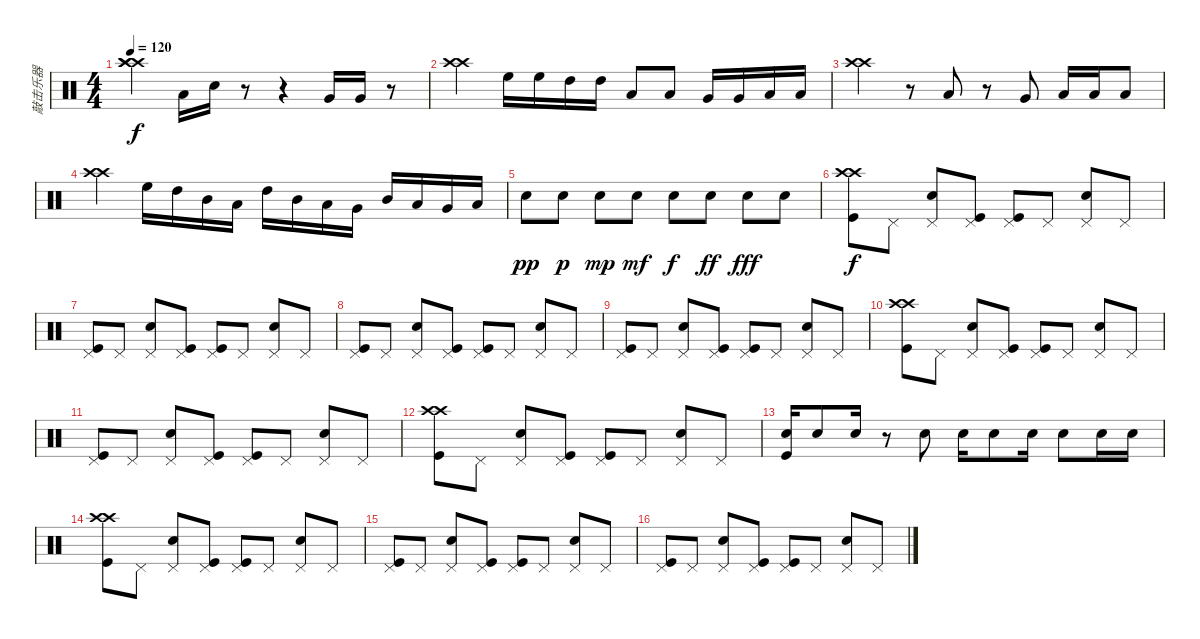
\track ("敲击乐器" "敲击乐器") {instrument percussion}
\staff {score}
\articulation defaults
\ts (4 4)
\tempo 120
\clef neutral
\ks c
("Crash high (hit)" "Crash high (hit)" "Crash high (hit)").4{dy f} "Low Tom (hit)".16 "Snare (hit)".16 r.8 r.4 "Very Low Tom (hit)".16 "Very Low Tom (hit)".16 r.8 |
("Crash high (hit)" "Crash high (hit)").4 "High Floor Tom (hit)".16 "High Floor Tom (hit)".16 "High Tom (hit)".16 "High Tom (hit)".16 "Low Tom (hit)".8 "Low Tom (hit)".8 "Very Low Tom (hit)".16 "Very Low Tom (hit)".16 "Low Floor Tom (hit)".16 "Low Floor Tom (hit)".16 |
("Crash high (hit)" "Crash high (hit)").4 r.8 "Low Tom (hit)".8 r.8 "Very Low Tom (hit)".8 "Low Floor Tom (hit)".16 "Low Floor Tom (hit)".16 "Low Floor Tom (hit)".8 |
("Crash high (hit)" "Crash high (hit)").4 "High Floor Tom (hit)".16 "High Tom (hit)".16 "Mid Tom (hit)".16 "Low Tom (hit)".16 "High Tom (hit)".16 "Mid Tom (hit)".16 "Low Tom (hit)".16 "Very Low Tom (hit)".16 "Mid Tom (hit)".16 "Low Tom (hit)".16 "Very Low Tom (hit)".16 "Low Floor Tom (hit)".16 |
"Metronome (bell)".8{dy pp} "Metronome (bell)".8{dy p} "Metronome (bell)".8{dy mp} "Metronome (bell)".8{dy mf} "Metronome (bell)".8{dy f} "Metronome (bell)".8{dy ff} "Metronome (bell)".8{dy fff} "Metronome (bell)".8 |
("Crash high (hit)" "Crash high (hit)" "Kick (hit)").8{dy f} "Pedal Hi-Hat (hit)".8 ("Pedal Hi-Hat (hit)" "Metronome (bell)").8 ("Pedal Hi-Hat (hit)" "Kick (hit)").8 ("Pedal Hi-Hat (hit)" "Kick (hit)").8 "Pedal Hi-Hat (hit)".8 ("Pedal Hi-Hat (hit)" "Metronome (bell)").8 "Pedal Hi-Hat (hit)".8 |
("Pedal Hi-Hat (hit)" "Kick (hit)").8 "Pedal Hi-Hat (hit)".8 ("Pedal Hi-Hat (hit)" "Metronome (bell)").8 ("Pedal Hi-Hat (hit)" "Kick (hit)").8 ("Pedal Hi-Hat (hit)" "Kick (hit)").8 "Pedal Hi-Hat (hit)".8 ("Pedal Hi-Hat (hit)" "Metronome (bell)").8 "Pedal Hi-Hat (hit)".8 |
("Pedal Hi-Hat (hit)" "Kick (hit)").8 "Pedal Hi-Hat (hit)".8 ("Pedal Hi-Hat (hit)" "Metronome (bell)").8 ("Pedal Hi-Hat (hit)" "Kick (hit)").8 ("Pedal Hi-Hat (hit)" "Kick (hit)").8 "Pedal Hi-Hat (hit)".8 ("Pedal Hi-Hat (hit)" "Metronome (bell)").8 "Pedal Hi-Hat (hit)".8 |
("Pedal Hi-Hat (hit)" "Kick (hit)").8 "Pedal Hi-Hat (hit)".8 ("Pedal Hi-Hat (hit)" "Metronome (bell)").8 ("Pedal Hi-Hat (hit)" "Kick (hit)").8 ("Pedal Hi-Hat (hit)" "Kick (hit)").8 "Pedal Hi-Hat (hit)".8 ("Pedal Hi-Hat (hit)" "Metronome (bell)").8 "Pedal Hi-Hat (hit)".8 |
("Crash high (hit)" "Crash high (hit)" "Kick (hit)").8 "Pedal Hi-Hat (hit)".8 ("Pedal Hi-Hat (hit)" "Metronome (bell)").8 ("Pedal Hi-Hat (hit)" "Kick (hit)").8 ("Pedal Hi-Hat (hit)" "Kick (hit)").8 "Pedal Hi-Hat (hit)".8 ("Pedal Hi-Hat (hit)" "Metronome (bell)").8 "Pedal Hi-Hat (hit)".8 |
("Pedal Hi-Hat (hit)" "Kick (hit)").8 "Pedal Hi-Hat (hit)".8 ("Pedal Hi-Hat (hit)" "Metronome (bell)").8 ("Pedal Hi-Hat (hit)" "Kick (hit)").8 ("Pedal Hi-Hat (hit)" "Kick (hit)").8 "Pedal Hi-Hat (hit)".8 ("Pedal Hi-Hat (hit)" "Metronome (bell)").8 "Pedal Hi-Hat (hit)".8 |
("Crash high (hit)" "Crash high (hit)" "Kick (hit)").8 "Pedal Hi-Hat (hit)".8 ("Pedal Hi-Hat (hit)" "Metronome (bell)").8 ("Pedal Hi-Hat (hit)" "Kick (hit)").8 ("Pedal Hi-Hat (hit)" "Kick (hit)").8 "Pedal Hi-Hat (hit)".8 ("Pedal Hi-Hat (hit)" "Metronome (bell)").8 "Pedal Hi-Hat (hit)".8 |
("Metronome (bell)" "Kick (hit)").16 "Metronome (bell)".8 "Metronome (bell)".16 r.8 "Metronome (bell)".8 "Metronome (bell)".16 "Metronome (bell)".8 "Metronome (bell)".16 "Metronome (bell)".8 "Metronome (bell)".16 "Metronome (bell)".16 |
("Crash high (hit)" "Crash high (hit)" "Kick (hit)").8 "Pedal Hi-Hat (hit)".8 ("Pedal Hi-Hat (hit)" "Metronome (bell)").8 ("Pedal Hi-Hat (hit)" "Kick (hit)").8 ("Pedal Hi-Hat (hit)" "Kick (hit)").8 "Pedal Hi-Hat (hit)".8 ("Pedal Hi-Hat (hit)" "Metronome (bell)").8 "Pedal Hi-Hat (hit)".8 |
("Pedal Hi-Hat (hit)" "Kick (hit)").8 "Pedal Hi-Hat (hit)".8 ("Pedal Hi-Hat (hit)" "Metronome (bell)").8 ("Pedal Hi-Hat (hit)" "Kick (hit)").8 ("Pedal Hi-Hat (hit)" "Kick (hit)").8 "Pedal Hi-Hat (hit)".8 ("Pedal Hi-Hat (hit)" "Metronome (bell)").8 "Pedal Hi-Hat (hit)".8 |
("Pedal Hi-Hat (hit)" "Kick (hit)").8 "Pedal Hi-Hat (hit)".8 ("Pedal Hi-Hat (hit)" "Metronome (bell)").8 ("Pedal Hi-Hat (hit)" "Kick (hit)").8 ("Pedal Hi-Hat (hit)" "Kick (hit)").8 "Pedal Hi-Hat (hit)".8 ("Pedal Hi-Hat (hit)" "Metronome (bell)").8 "Pedal Hi-Hat (hit)".8
